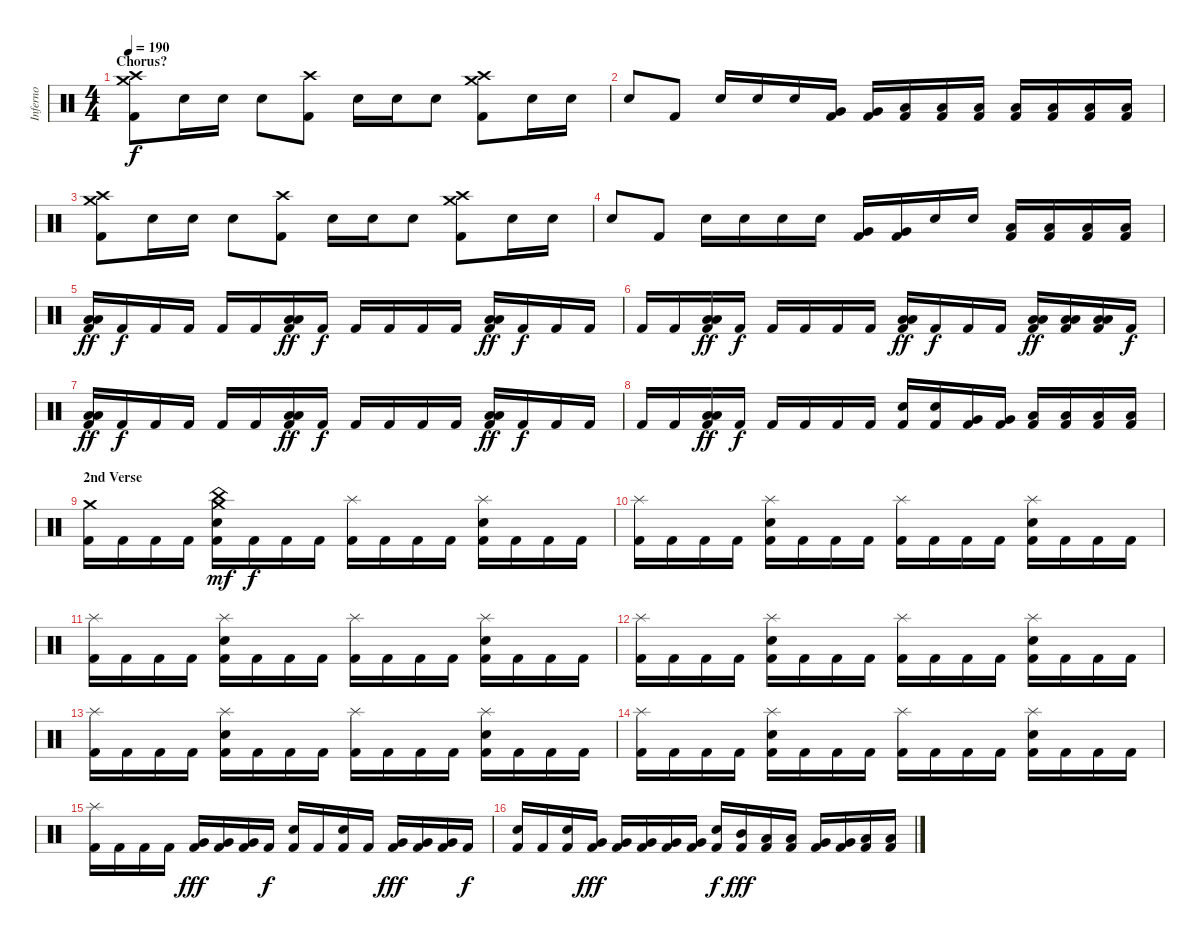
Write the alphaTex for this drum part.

\track ("Inferno" "Inferno") {instrument percussion}
\staff {score}
\articulation defaults
\ts (4 4)
\section ("" "Chorus?")
\tempo 190
\clef neutral
\ks c
("Crash high (hit)" "Crash medium (hit)" "Kick (hit) 2").8{dy f} "Snare (hit) 2".16 "Snare (hit) 2".16 "Snare (hit) 2".8 ("Crash high (hit)" "Kick (hit) 2").8 "Snare (hit) 2".16 "Snare (hit) 2".16 "Snare (hit) 2".8 ("Crash high (hit)" "Crash medium (hit)" "Kick (hit) 2").8 "Snare (hit) 2".16 "Snare (hit) 2".16 |
"Snare (hit) 2".8 "Kick (hit) 2".8 "Snare (hit) 2".16 "Snare (hit) 2".16 "Snare (hit) 2".16 ("Very Low Tom (hit)" "Kick (hit) 2").16 ("Very Low Tom (hit)" "Kick (hit) 2").16 ("Low Floor Tom (hit)" "Kick (hit) 2").16 ("Low Floor Tom (hit)" "Kick (hit) 2").16 ("Low Floor Tom (hit)" "Kick (hit) 2").16 ("Low Floor Tom (hit)" "Kick (hit) 2").16 ("Low Floor Tom (hit)" "Kick (hit) 2").16 ("Low Floor Tom (hit)" "Kick (hit) 2").16 ("Low Floor Tom (hit)" "Kick (hit) 2").16 |
("Crash high (hit)" "Crash medium (hit)" "Kick (hit) 2").8 "Snare (hit) 2".16 "Snare (hit) 2".16 "Snare (hit) 2".8 ("Crash high (hit)" "Kick (hit) 2").8 "Snare (hit) 2".16 "Snare (hit) 2".16 "Snare (hit) 2".8 ("Crash high (hit)" "Crash medium (hit)" "Kick (hit) 2").8 "Snare (hit) 2".16 "Snare (hit) 2".16 |
"Snare (hit) 2".8 "Kick (hit) 2".8 "Snare (hit) 2".16 "Snare (hit) 2".16 "Snare (hit) 2".16 "Snare (hit) 2".16 ("Very Low Tom (hit)" "Kick (hit) 2").16 ("Very Low Tom (hit)" "Kick (hit) 2").16 "Snare (hit) 2".16 "Snare (hit) 2".16 ("Low Floor Tom (hit)" "Kick (hit) 2").16 ("Low Floor Tom (hit)" "Kick (hit) 2").16 ("Low Floor Tom (hit)" "Kick (hit) 2").16 ("Low Floor Tom (hit)" "Kick (hit) 2").16 |
("Low Floor Tom (hit)" "Low Floor Tom (hit)" "Kick (hit) 2").16{dy ff} "Kick (hit) 2".16{dy f} "Kick (hit) 2".16 "Kick (hit) 2".16 "Kick (hit) 2".16 "Kick (hit) 2".16 ("Low Floor Tom (hit)" "Low Floor Tom (hit)" "Kick (hit) 2").16{dy ff} "Kick (hit) 2".16{dy f} "Kick (hit) 2".16 "Kick (hit) 2".16 "Kick (hit) 2".16 "Kick (hit) 2".16 ("Low Floor Tom (hit)" "Low Floor Tom (hit)" "Kick (hit) 2").16{dy ff} "Kick (hit) 2".16{dy f} "Kick (hit) 2".16 "Kick (hit) 2".16 |
"Kick (hit) 2".16 "Kick (hit) 2".16 ("Low Floor Tom (hit)" "Low Floor Tom (hit)" "Kick (hit) 2").16{dy ff} "Kick (hit) 2".16{dy f} "Kick (hit) 2".16 "Kick (hit) 2".16 "Kick (hit) 2".16 "Kick (hit) 2".16 ("Low Floor Tom (hit)" "Low Floor Tom (hit)" "Kick (hit) 2").16{dy ff} "Kick (hit) 2".16{dy f} "Kick (hit) 2".16 "Kick (hit) 2".16 ("Low Floor Tom (hit)" "Low Floor Tom (hit)" "Kick (hit) 2").16{dy ff} ("Low Floor Tom (hit)" "Low Floor Tom (hit)" "Kick (hit) 2").16 ("Low Floor Tom (hit)" "Low Floor Tom (hit)" "Kick (hit) 2").16 "Kick (hit) 2".16{dy f} |
("Low Floor Tom (hit)" "Low Floor Tom (hit)" "Kick (hit) 2").16{dy ff} "Kick (hit) 2".16{dy f} "Kick (hit) 2".16 "Kick (hit) 2".16 "Kick (hit) 2".16 "Kick (hit) 2".16 ("Low Floor Tom (hit)" "Low Floor Tom (hit)" "Kick (hit) 2").16{dy ff} "Kick (hit) 2".16{dy f} "Kick (hit) 2".16 "Kick (hit) 2".16 "Kick (hit) 2".16 "Kick (hit) 2".16 ("Low Floor Tom (hit)" "Low Floor Tom (hit)" "Kick (hit) 2").16{dy ff} "Kick (hit) 2".16{dy f} "Kick (hit) 2".16 "Kick (hit) 2".16 |
"Kick (hit) 2".16 "Kick (hit) 2".16 ("Low Floor Tom (hit)" "Low Floor Tom (hit)" "Kick (hit) 2").16{dy ff} "Kick (hit) 2".16{dy f} "Kick (hit) 2".16 "Kick (hit) 2".16 "Kick (hit) 2".16 "Kick (hit) 2".16 ("Snare (hit) 2" "Kick (hit) 2").16 ("Snare (hit) 2" "Kick (hit) 2").16 ("Very Low Tom (hit)" "Kick (hit) 2").16 ("Very Low Tom (hit)" "Kick (hit) 2").16 ("Low Floor Tom (hit)" "Kick (hit) 2").16 ("Low Floor Tom (hit)" "Kick (hit) 2").16 ("Low Floor Tom (hit)" "Kick (hit) 2").16 ("Low Floor Tom (hit)" "Kick (hit) 2").16 |
\section ("" "2nd Verse")
("Crash medium (hit)" "Kick (hit) 2").16 "Kick (hit) 2".16 "Kick (hit) 2".16 "Kick (hit) 2".16 ("Crash medium (hit)" "China (hit)" "Snare (hit) 2" "Kick (hit) 2").16{dy mf} "Kick (hit) 2".16{dy f} "Kick (hit) 2".16 "Kick (hit) 2".16 ("Splash (hit)" "Kick (hit) 2").16 "Kick (hit) 2".16 "Kick (hit) 2".16 "Kick (hit) 2".16 ("Splash (hit)" "Snare (hit) 2" "Kick (hit) 2").16 "Kick (hit) 2".16 "Kick (hit) 2".16 "Kick (hit) 2".16 |
("Splash (hit)" "Kick (hit) 2").16 "Kick (hit) 2".16 "Kick (hit) 2".16 "Kick (hit) 2".16 ("Splash (hit)" "Snare (hit) 2" "Kick (hit) 2").16 "Kick (hit) 2".16 "Kick (hit) 2".16 "Kick (hit) 2".16 ("Splash (hit)" "Kick (hit) 2").16 "Kick (hit) 2".16 "Kick (hit) 2".16 "Kick (hit) 2".16 ("Splash (hit)" "Snare (hit) 2" "Kick (hit) 2").16 "Kick (hit) 2".16 "Kick (hit) 2".16 "Kick (hit) 2".16 |
("Splash (hit)" "Kick (hit) 2").16 "Kick (hit) 2".16 "Kick (hit) 2".16 "Kick (hit) 2".16 ("Splash (hit)" "Snare (hit) 2" "Kick (hit) 2").16 "Kick (hit) 2".16 "Kick (hit) 2".16 "Kick (hit) 2".16 ("Splash (hit)" "Kick (hit) 2").16 "Kick (hit) 2".16 "Kick (hit) 2".16 "Kick (hit) 2".16 ("Splash (hit)" "Snare (hit) 2" "Kick (hit) 2").16 "Kick (hit) 2".16 "Kick (hit) 2".16 "Kick (hit) 2".16 |
("Splash (hit)" "Kick (hit) 2").16 "Kick (hit) 2".16 "Kick (hit) 2".16 "Kick (hit) 2".16 ("Splash (hit)" "Snare (hit) 2" "Kick (hit) 2").16 "Kick (hit) 2".16 "Kick (hit) 2".16 "Kick (hit) 2".16 ("Splash (hit)" "Kick (hit) 2").16 "Kick (hit) 2".16 "Kick (hit) 2".16 "Kick (hit) 2".16 ("Splash (hit)" "Snare (hit) 2" "Kick (hit) 2").16 "Kick (hit) 2".16 "Kick (hit) 2".16 "Kick (hit) 2".16 |
("Splash (hit)" "Kick (hit) 2").16 "Kick (hit) 2".16 "Kick (hit) 2".16 "Kick (hit) 2".16 ("Splash (hit)" "Snare (hit) 2" "Kick (hit) 2").16 "Kick (hit) 2".16 "Kick (hit) 2".16 "Kick (hit) 2".16 ("Splash (hit)" "Kick (hit) 2").16 "Kick (hit) 2".16 "Kick (hit) 2".16 "Kick (hit) 2".16 ("Splash (hit)" "Snare (hit) 2" "Kick (hit) 2").16 "Kick (hit) 2".16 "Kick (hit) 2".16 "Kick (hit) 2".16 |
("Splash (hit)" "Kick (hit) 2").16 "Kick (hit) 2".16 "Kick (hit) 2".16 "Kick (hit) 2".16 ("Splash (hit)" "Snare (hit) 2" "Kick (hit) 2").16 "Kick (hit) 2".16 "Kick (hit) 2".16 "Kick (hit) 2".16 ("Splash (hit)" "Kick (hit) 2").16 "Kick (hit) 2".16 "Kick (hit) 2".16 "Kick (hit) 2".16 ("Splash (hit)" "Snare (hit) 2" "Kick (hit) 2").16 "Kick (hit) 2".16 "Kick (hit) 2".16 "Kick (hit) 2".16 |
("Splash (hit)" "Kick (hit) 2").16 "Kick (hit) 2".16 "Kick (hit) 2".16 "Kick (hit) 2".16 ("Very Low Tom (hit)" "Kick (hit) 2").16{dy fff} ("Very Low Tom (hit)" "Kick (hit) 2").16 ("Very Low Tom (hit)" "Kick (hit) 2").16 "Kick (hit) 2".16{dy f} ("Snare (hit) 2" "Kick (hit) 2").16 "Kick (hit) 2".16 ("Snare (hit) 2" "Kick (hit) 2").16 "Kick (hit) 2".16 ("Very Low Tom (hit)" "Kick (hit) 2").16{dy fff} ("Very Low Tom (hit)" "Kick (hit) 2").16 ("Very Low Tom (hit)" "Kick (hit) 2").16 "Kick (hit) 2".16{dy f} |
("Snare (hit) 2" "Kick (hit) 2").16 "Kick (hit) 2".16 ("Snare (hit) 2" "Kick (hit) 2").16 ("Very Low Tom (hit)" "Kick (hit) 2").16{dy fff} ("Very Low Tom (hit)" "Kick (hit) 2").16 ("Very Low Tom (hit)" "Kick (hit) 2").16 ("Very Low Tom (hit)" "Kick (hit) 2").16 ("Very Low Tom (hit)" "Kick (hit) 2").16 ("Snare (hit) 2" "Kick (hit) 2").16{dy f} ("Mid Tom (hit)" "Kick (hit) 2").16{dy fff} ("Low Tom (hit)" "Kick (hit) 2").16 ("Low Tom (hit)" "Kick (hit) 2").16 ("Very Low Tom (hit)" "Kick (hit) 2").16 ("Very Low Tom (hit)" "Kick (hit) 2").16 ("Low Floor Tom (hit)" "Kick (hit) 2").16 ("Low Floor Tom (hit)" "Kick (hit) 2").16
